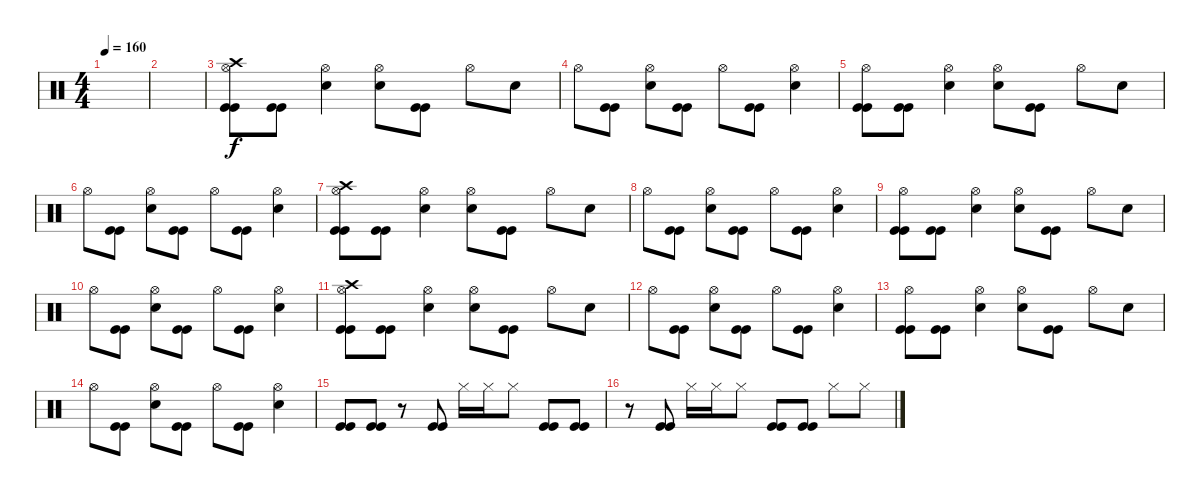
\track ("  " "  ") {instrument percussion}
\staff {score}
\articulation defaults
\ts (4 4)
\tempo 160
\clef neutral
\ks c
|
|
("Crash high (hit)" "Hi-Hat (open)" "Kick (hit)" "Kick (hit)").8 ("Kick (hit)" "Kick (hit)").8 ("Hi-Hat (open)" "Electric Snare (hit)").4 ("Hi-Hat (open)" "Electric Snare (hit)").8 ("Kick (hit)" "Kick (hit)").8 "Hi-Hat (open)".8 "Electric Snare (hit)".8 |
"Hi-Hat (open)".8 ("Kick (hit)" "Kick (hit)").8 ("Hi-Hat (open)" "Electric Snare (hit)").8 ("Kick (hit)" "Kick (hit)").8 "Hi-Hat (open)".8 ("Kick (hit)" "Kick (hit)").8 ("Hi-Hat (open)" "Electric Snare (hit)").4 |
("Hi-Hat (open)" "Kick (hit)" "Kick (hit)").8 ("Kick (hit)" "Kick (hit)").8 ("Hi-Hat (open)" "Electric Snare (hit)").4 ("Hi-Hat (open)" "Electric Snare (hit)").8 ("Kick (hit)" "Kick (hit)").8 "Hi-Hat (open)".8 "Electric Snare (hit)".8 |
"Hi-Hat (open)".8 ("Kick (hit)" "Kick (hit)").8 ("Hi-Hat (open)" "Electric Snare (hit)").8 ("Kick (hit)" "Kick (hit)").8 "Hi-Hat (open)".8 ("Kick (hit)" "Kick (hit)").8 ("Hi-Hat (open)" "Electric Snare (hit)").4 |
("Crash high (hit)" "Hi-Hat (open)" "Kick (hit)" "Kick (hit)").8 ("Kick (hit)" "Kick (hit)").8 ("Hi-Hat (open)" "Electric Snare (hit)").4 ("Hi-Hat (open)" "Electric Snare (hit)").8 ("Kick (hit)" "Kick (hit)").8 "Hi-Hat (open)".8 "Electric Snare (hit)".8 |
"Hi-Hat (open)".8 ("Kick (hit)" "Kick (hit)").8 ("Hi-Hat (open)" "Electric Snare (hit)").8 ("Kick (hit)" "Kick (hit)").8 "Hi-Hat (open)".8 ("Kick (hit)" "Kick (hit)").8 ("Hi-Hat (open)" "Electric Snare (hit)").4 |
("Hi-Hat (open)" "Kick (hit)" "Kick (hit)").8 ("Kick (hit)" "Kick (hit)").8 ("Hi-Hat (open)" "Electric Snare (hit)").4 ("Hi-Hat (open)" "Electric Snare (hit)").8 ("Kick (hit)" "Kick (hit)").8 "Hi-Hat (open)".8 "Electric Snare (hit)".8 |
"Hi-Hat (open)".8 ("Kick (hit)" "Kick (hit)").8 ("Hi-Hat (open)" "Electric Snare (hit)").8 ("Kick (hit)" "Kick (hit)").8 "Hi-Hat (open)".8 ("Kick (hit)" "Kick (hit)").8 ("Hi-Hat (open)" "Electric Snare (hit)").4 |
("Crash high (hit)" "Hi-Hat (open)" "Kick (hit)" "Kick (hit)").8 ("Kick (hit)" "Kick (hit)").8 ("Hi-Hat (open)" "Electric Snare (hit)").4 ("Hi-Hat (open)" "Electric Snare (hit)").8 ("Kick (hit)" "Kick (hit)").8 "Hi-Hat (open)".8 "Electric Snare (hit)".8 |
"Hi-Hat (open)".8 ("Kick (hit)" "Kick (hit)").8 ("Hi-Hat (open)" "Electric Snare (hit)").8 ("Kick (hit)" "Kick (hit)").8 "Hi-Hat (open)".8 ("Kick (hit)" "Kick (hit)").8 ("Hi-Hat (open)" "Electric Snare (hit)").4 |
("Hi-Hat (open)" "Kick (hit)" "Kick (hit)").8 ("Kick (hit)" "Kick (hit)").8 ("Hi-Hat (open)" "Electric Snare (hit)").4 ("Hi-Hat (open)" "Electric Snare (hit)").8 ("Kick (hit)" "Kick (hit)").8 "Hi-Hat (open)".8 "Electric Snare (hit)".8 |
"Hi-Hat (open)".8 ("Kick (hit)" "Kick (hit)").8 ("Hi-Hat (open)" "Electric Snare (hit)").8 ("Kick (hit)" "Kick (hit)").8 "Hi-Hat (open)".8 ("Kick (hit)" "Kick (hit)").8 ("Hi-Hat (open)" "Electric Snare (hit)").4 |
("Kick (hit)" "Kick (hit)").8 ("Kick (hit)" "Kick (hit)").8 r.8 ("Kick (hit)" "Kick (hit)").8 "Hi-Hat (closed)".16 "Hi-Hat (closed)".16 "Hi-Hat (closed)".8 ("Kick (hit)" "Kick (hit)").8 ("Kick (hit)" "Kick (hit)").8 |
r.8 ("Kick (hit)" "Kick (hit)").8 "Hi-Hat (closed)".16 "Hi-Hat (closed)".16 "Hi-Hat (closed)".8 ("Kick (hit)" "Kick (hit)").8 ("Kick (hit)" "Kick (hit)").8 "Hi-Hat (closed)".8 "Hi-Hat (closed)".8
